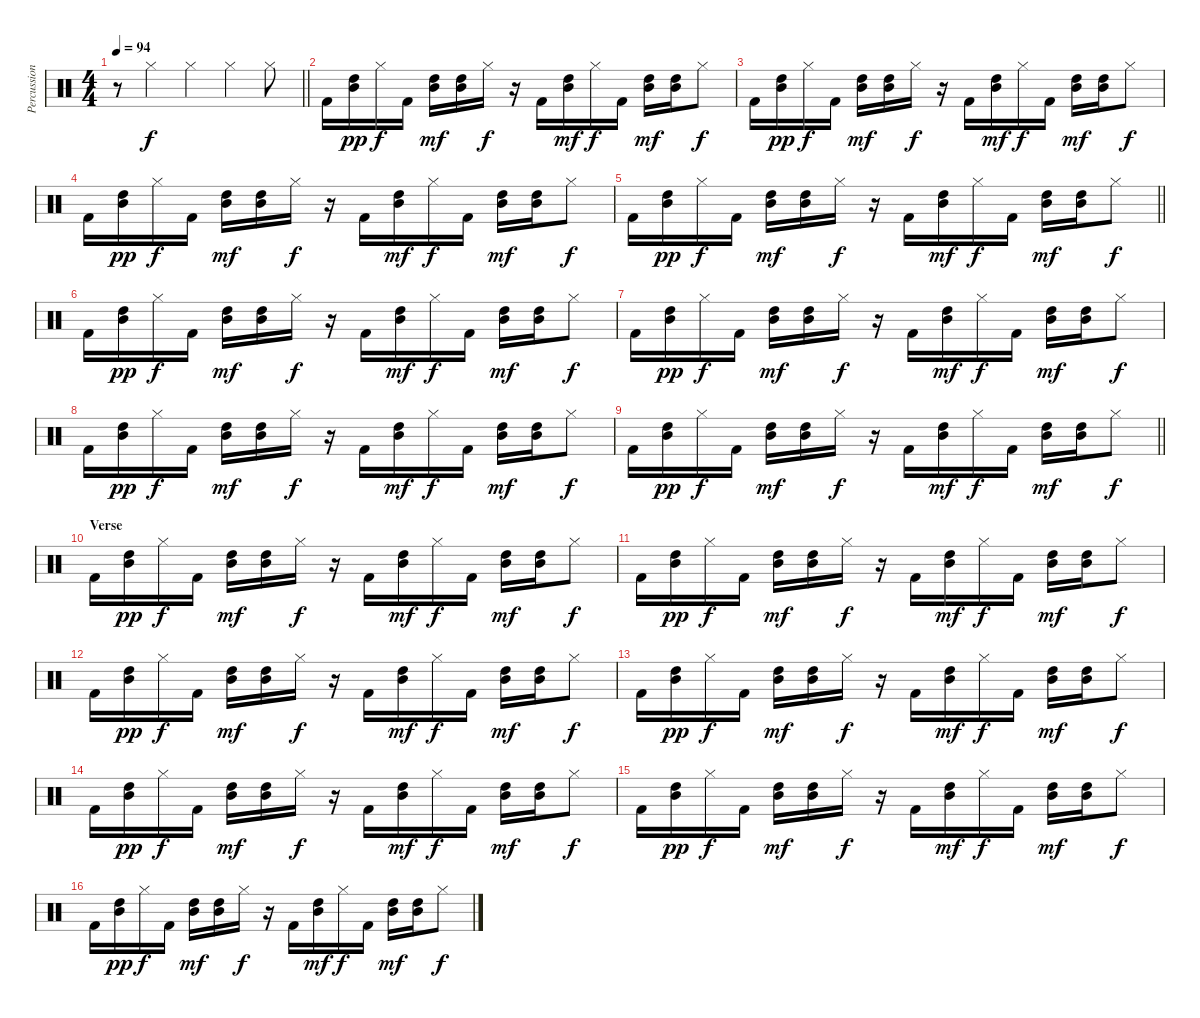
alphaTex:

\track ("Percussion" "Percussion") {instrument percussion}
\staff {score}
\articulation defaults
\ts (4 4)
\tempo 94
\clef neutral
\barLineRight lightlight
\ks c
r.8{dy f} "Hi-Hat (closed)".4 "Hi-Hat (closed)".4 "Hi-Hat (closed)".4 "Hi-Hat (closed)".8 |
"Kick (hit) 2".16 ("Mid Tom (hit)" "High Tom (hit)").16{dy pp} "Hi-Hat (closed)".16{dy f} "Kick (hit) 2".16 ("Mid Tom (hit)" "High Tom (hit)").16{dy mf} ("Mid Tom (hit)" "High Tom (hit)").16 "Hi-Hat (closed)".16{dy f} r.16 "Kick (hit) 2".16 ("Mid Tom (hit)" "High Tom (hit)").16{dy mf} "Hi-Hat (closed)".16{dy f} "Kick (hit) 2".16 ("Mid Tom (hit)" "High Tom (hit)").16{dy mf} ("Mid Tom (hit)" "High Tom (hit)").16 "Hi-Hat (closed)".8{dy f} |
"Kick (hit) 2".16 ("Mid Tom (hit)" "High Tom (hit)").16{dy pp} "Hi-Hat (closed)".16{dy f} "Kick (hit) 2".16 ("Mid Tom (hit)" "High Tom (hit)").16{dy mf} ("Mid Tom (hit)" "High Tom (hit)").16 "Hi-Hat (closed)".16{dy f} r.16 "Kick (hit) 2".16 ("Mid Tom (hit)" "High Tom (hit)").16{dy mf} "Hi-Hat (closed)".16{dy f} "Kick (hit) 2".16 ("Mid Tom (hit)" "High Tom (hit)").16{dy mf} ("Mid Tom (hit)" "High Tom (hit)").16 "Hi-Hat (closed)".8{dy f} |
"Kick (hit) 2".16 ("Mid Tom (hit)" "High Tom (hit)").16{dy pp} "Hi-Hat (closed)".16{dy f} "Kick (hit) 2".16 ("Mid Tom (hit)" "High Tom (hit)").16{dy mf} ("Mid Tom (hit)" "High Tom (hit)").16 "Hi-Hat (closed)".16{dy f} r.16 "Kick (hit) 2".16 ("Mid Tom (hit)" "High Tom (hit)").16{dy mf} "Hi-Hat (closed)".16{dy f} "Kick (hit) 2".16 ("Mid Tom (hit)" "High Tom (hit)").16{dy mf} ("Mid Tom (hit)" "High Tom (hit)").16 "Hi-Hat (closed)".8{dy f} |
\barLineRight lightlight "Kick (hit) 2".16
("Mid Tom (hit)" "High Tom (hit)").16{dy pp} "Hi-Hat (closed)".16{dy f} "Kick (hit) 2".16 ("Mid Tom (hit)" "High Tom (hit)").16{dy mf} ("Mid Tom (hit)" "High Tom (hit)").16 "Hi-Hat (closed)".16{dy f} r.16 "Kick (hit) 2".16 ("Mid Tom (hit)" "High Tom (hit)").16{dy mf} "Hi-Hat (closed)".16{dy f} "Kick (hit) 2".16 ("Mid Tom (hit)" "High Tom (hit)").16{dy mf} ("Mid Tom (hit)" "High Tom (hit)").16 "Hi-Hat (closed)".8{dy f} |
"Kick (hit) 2".16 ("Mid Tom (hit)" "High Tom (hit)").16{dy pp} "Hi-Hat (closed)".16{dy f} "Kick (hit) 2".16 ("Mid Tom (hit)" "High Tom (hit)").16{dy mf} ("Mid Tom (hit)" "High Tom (hit)").16 "Hi-Hat (closed)".16{dy f} r.16 "Kick (hit) 2".16 ("Mid Tom (hit)" "High Tom (hit)").16{dy mf} "Hi-Hat (closed)".16{dy f} "Kick (hit) 2".16 ("Mid Tom (hit)" "High Tom (hit)").16{dy mf} ("Mid Tom (hit)" "High Tom (hit)").16 "Hi-Hat (closed)".8{dy f} |
"Kick (hit) 2".16 ("Mid Tom (hit)" "High Tom (hit)").16{dy pp} "Hi-Hat (closed)".16{dy f} "Kick (hit) 2".16 ("Mid Tom (hit)" "High Tom (hit)").16{dy mf} ("Mid Tom (hit)" "High Tom (hit)").16 "Hi-Hat (closed)".16{dy f} r.16 "Kick (hit) 2".16 ("Mid Tom (hit)" "High Tom (hit)").16{dy mf} "Hi-Hat (closed)".16{dy f} "Kick (hit) 2".16 ("Mid Tom (hit)" "High Tom (hit)").16{dy mf} ("Mid Tom (hit)" "High Tom (hit)").16 "Hi-Hat (closed)".8{dy f} |
"Kick (hit) 2".16 ("Mid Tom (hit)" "High Tom (hit)").16{dy pp} "Hi-Hat (closed)".16{dy f} "Kick (hit) 2".16 ("Mid Tom (hit)" "High Tom (hit)").16{dy mf} ("Mid Tom (hit)" "High Tom (hit)").16 "Hi-Hat (closed)".16{dy f} r.16 "Kick (hit) 2".16 ("Mid Tom (hit)" "High Tom (hit)").16{dy mf} "Hi-Hat (closed)".16{dy f} "Kick (hit) 2".16 ("Mid Tom (hit)" "High Tom (hit)").16{dy mf} ("Mid Tom (hit)" "High Tom (hit)").16 "Hi-Hat (closed)".8{dy f} |
\barLineRight lightlight "Kick (hit) 2".16
("Mid Tom (hit)" "High Tom (hit)").16{dy pp} "Hi-Hat (closed)".16{dy f} "Kick (hit) 2".16 ("Mid Tom (hit)" "High Tom (hit)").16{dy mf} ("Mid Tom (hit)" "High Tom (hit)").16 "Hi-Hat (closed)".16{dy f} r.16 "Kick (hit) 2".16 ("Mid Tom (hit)" "High Tom (hit)").16{dy mf} "Hi-Hat (closed)".16{dy f} "Kick (hit) 2".16 ("Mid Tom (hit)" "High Tom (hit)").16{dy mf} ("Mid Tom (hit)" "High Tom (hit)").16 "Hi-Hat (closed)".8{dy f} |
\section ("" "Verse")
"Kick (hit) 2".16 ("Mid Tom (hit)" "High Tom (hit)").16{dy pp} "Hi-Hat (closed)".16{dy f} "Kick (hit) 2".16 ("Mid Tom (hit)" "High Tom (hit)").16{dy mf} ("Mid Tom (hit)" "High Tom (hit)").16 "Hi-Hat (closed)".16{dy f} r.16 "Kick (hit) 2".16 ("Mid Tom (hit)" "High Tom (hit)").16{dy mf} "Hi-Hat (closed)".16{dy f} "Kick (hit) 2".16 ("Mid Tom (hit)" "High Tom (hit)").16{dy mf} ("Mid Tom (hit)" "High Tom (hit)").16 "Hi-Hat (closed)".8{dy f} |
"Kick (hit) 2".16 ("Mid Tom (hit)" "High Tom (hit)").16{dy pp} "Hi-Hat (closed)".16{dy f} "Kick (hit) 2".16 ("Mid Tom (hit)" "High Tom (hit)").16{dy mf} ("Mid Tom (hit)" "High Tom (hit)").16 "Hi-Hat (closed)".16{dy f} r.16 "Kick (hit) 2".16 ("Mid Tom (hit)" "High Tom (hit)").16{dy mf} "Hi-Hat (closed)".16{dy f} "Kick (hit) 2".16 ("Mid Tom (hit)" "High Tom (hit)").16{dy mf} ("Mid Tom (hit)" "High Tom (hit)").16 "Hi-Hat (closed)".8{dy f} |
"Kick (hit) 2".16 ("Mid Tom (hit)" "High Tom (hit)").16{dy pp} "Hi-Hat (closed)".16{dy f} "Kick (hit) 2".16 ("Mid Tom (hit)" "High Tom (hit)").16{dy mf} ("Mid Tom (hit)" "High Tom (hit)").16 "Hi-Hat (closed)".16{dy f} r.16 "Kick (hit) 2".16 ("Mid Tom (hit)" "High Tom (hit)").16{dy mf} "Hi-Hat (closed)".16{dy f} "Kick (hit) 2".16 ("Mid Tom (hit)" "High Tom (hit)").16{dy mf} ("Mid Tom (hit)" "High Tom (hit)").16 "Hi-Hat (closed)".8{dy f} |
"Kick (hit) 2".16 ("Mid Tom (hit)" "High Tom (hit)").16{dy pp} "Hi-Hat (closed)".16{dy f} "Kick (hit) 2".16 ("Mid Tom (hit)" "High Tom (hit)").16{dy mf} ("Mid Tom (hit)" "High Tom (hit)").16 "Hi-Hat (closed)".16{dy f} r.16 "Kick (hit) 2".16 ("Mid Tom (hit)" "High Tom (hit)").16{dy mf} "Hi-Hat (closed)".16{dy f} "Kick (hit) 2".16 ("Mid Tom (hit)" "High Tom (hit)").16{dy mf} ("Mid Tom (hit)" "High Tom (hit)").16 "Hi-Hat (closed)".8{dy f} |
"Kick (hit) 2".16 ("Mid Tom (hit)" "High Tom (hit)").16{dy pp} "Hi-Hat (closed)".16{dy f} "Kick (hit) 2".16 ("Mid Tom (hit)" "High Tom (hit)").16{dy mf} ("Mid Tom (hit)" "High Tom (hit)").16 "Hi-Hat (closed)".16{dy f} r.16 "Kick (hit) 2".16 ("Mid Tom (hit)" "High Tom (hit)").16{dy mf} "Hi-Hat (closed)".16{dy f} "Kick (hit) 2".16 ("Mid Tom (hit)" "High Tom (hit)").16{dy mf} ("Mid Tom (hit)" "High Tom (hit)").16 "Hi-Hat (closed)".8{dy f} |
"Kick (hit) 2".16 ("Mid Tom (hit)" "High Tom (hit)").16{dy pp} "Hi-Hat (closed)".16{dy f} "Kick (hit) 2".16 ("Mid Tom (hit)" "High Tom (hit)").16{dy mf} ("Mid Tom (hit)" "High Tom (hit)").16 "Hi-Hat (closed)".16{dy f} r.16 "Kick (hit) 2".16 ("Mid Tom (hit)" "High Tom (hit)").16{dy mf} "Hi-Hat (closed)".16{dy f} "Kick (hit) 2".16 ("Mid Tom (hit)" "High Tom (hit)").16{dy mf} ("Mid Tom (hit)" "High Tom (hit)").16 "Hi-Hat (closed)".8{dy f} |
"Kick (hit) 2".16 ("Mid Tom (hit)" "High Tom (hit)").16{dy pp} "Hi-Hat (closed)".16{dy f} "Kick (hit) 2".16 ("Mid Tom (hit)" "High Tom (hit)").16{dy mf} ("Mid Tom (hit)" "High Tom (hit)").16 "Hi-Hat (closed)".16{dy f} r.16 "Kick (hit) 2".16 ("Mid Tom (hit)" "High Tom (hit)").16{dy mf} "Hi-Hat (closed)".16{dy f} "Kick (hit) 2".16 ("Mid Tom (hit)" "High Tom (hit)").16{dy mf} ("Mid Tom (hit)" "High Tom (hit)").16 "Hi-Hat (closed)".8{dy f}
